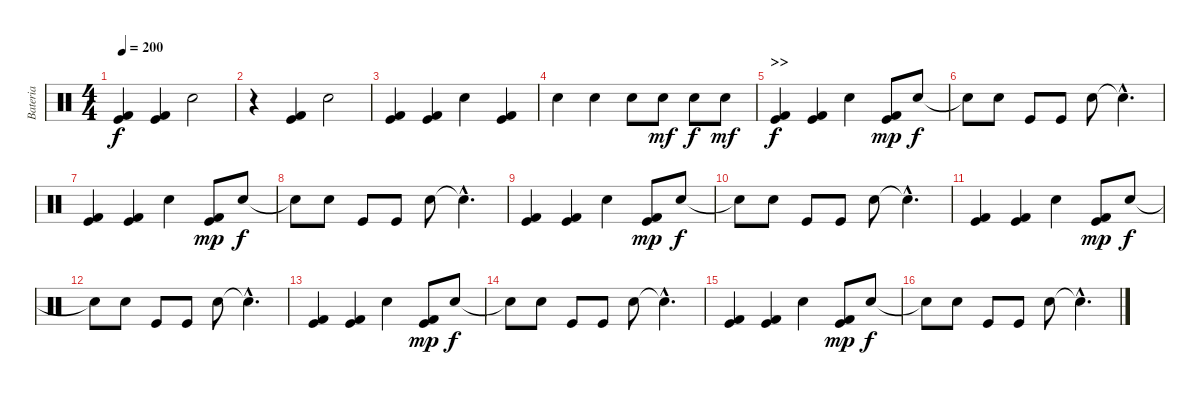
\track ("Bateria" "Bateria") {instrument percussion}
\staff {score}
\articulation defaults
\ts (4 4)
\tempo 200
\clef neutral
\ks c
("Kick (hit) 2" "Kick (hit)").4{dy f} ("Kick (hit) 2" "Kick (hit)").4 "Electric Snare (hit)".2 |
r.4 ("Kick (hit) 2" "Kick (hit)").4 "Electric Snare (hit)".2 |
("Kick (hit) 2" "Kick (hit)").4 ("Kick (hit)" "Kick (hit) 2").4 "Electric Snare (hit)".4 ("Kick (hit) 2" "Kick (hit)").4 |
"Electric Snare (hit)".4 "Electric Snare (hit)".4 "Electric Snare (hit)".8 "Electric Snare (hit)".8{dy mf} "Electric Snare (hit)".8{dy f} "Electric Snare (hit)".8{dy mf} |
\section ("" ">>")
("Kick (hit) 2" "Kick (hit)").4{dy f} ("Kick (hit) 2" "Kick (hit)").4 "Electric Snare (hit)".4 ("Kick (hit)" "Kick (hit) 2").8{dy mp} "Electric Snare (hit)".8{dy f} |
"Snare (hit)"{t}.8 "Electric Snare (hit)".8 "Kick (hit)".8 "Kick (hit)".8 "Electric Snare (hit)".8 "Snare (hit)"{hac t}.4{d} |
("Kick (hit) 2" "Kick (hit)").4 ("Kick (hit) 2" "Kick (hit)").4 "Electric Snare (hit)".4 ("Kick (hit)" "Kick (hit) 2").8{dy mp} "Electric Snare (hit)".8{dy f} |
"Snare (hit)"{t}.8 "Electric Snare (hit)".8 "Kick (hit)".8 "Kick (hit)".8 "Electric Snare (hit)".8 "Snare (hit)"{hac t}.4{d} |
("Kick (hit) 2" "Kick (hit)").4 ("Kick (hit) 2" "Kick (hit)").4 "Electric Snare (hit)".4 ("Kick (hit)" "Kick (hit) 2").8{dy mp} "Electric Snare (hit)".8{dy f} |
"Snare (hit)"{t}.8 "Electric Snare (hit)".8 "Kick (hit)".8 "Kick (hit)".8 "Electric Snare (hit)".8 "Snare (hit)"{hac t}.4{d} |
("Kick (hit) 2" "Kick (hit)").4 ("Kick (hit) 2" "Kick (hit)").4 "Electric Snare (hit)".4 ("Kick (hit)" "Kick (hit) 2").8{dy mp} "Electric Snare (hit)".8{dy f} |
"Snare (hit)"{t}.8 "Electric Snare (hit)".8 "Kick (hit)".8 "Kick (hit)".8 "Electric Snare (hit)".8 "Snare (hit)"{hac t}.4{d} |
("Kick (hit) 2" "Kick (hit)").4 ("Kick (hit) 2" "Kick (hit)").4 "Electric Snare (hit)".4 ("Kick (hit)" "Kick (hit) 2").8{dy mp} "Electric Snare (hit)".8{dy f} |
"Snare (hit)"{t}.8 "Electric Snare (hit)".8 "Kick (hit)".8 "Kick (hit)".8 "Electric Snare (hit)".8 "Snare (hit)"{hac t}.4{d} |
("Kick (hit) 2" "Kick (hit)").4 ("Kick (hit) 2" "Kick (hit)").4 "Electric Snare (hit)".4 ("Kick (hit)" "Kick (hit) 2").8{dy mp} "Electric Snare (hit)".8{dy f} |
"Snare (hit)"{t}.8 "Electric Snare (hit)".8 "Kick (hit)".8 "Kick (hit)".8 "Electric Snare (hit)".8 "Snare (hit)"{hac t}.4{d}
